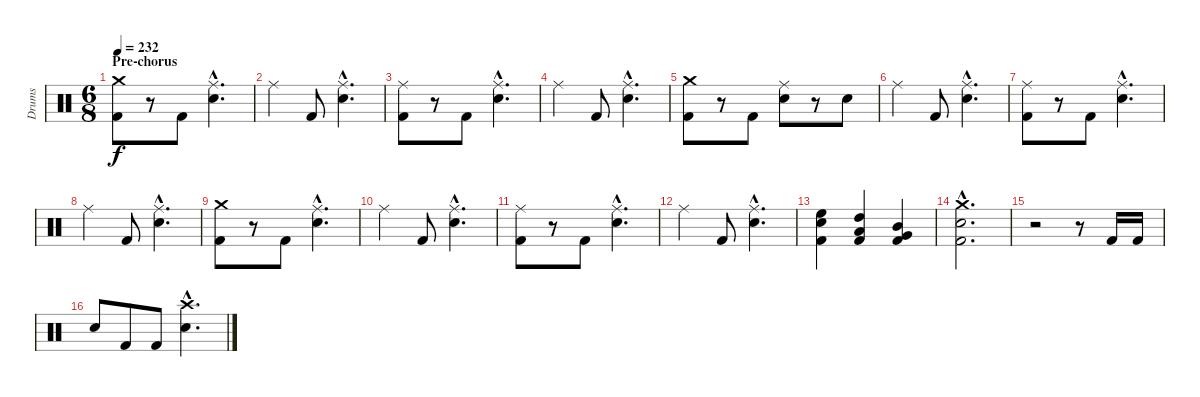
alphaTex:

\track ("Drums" "Drums") {instrument percussion}
\staff {score}
\articulation defaults
\ts (6 8)
\section ("" "Pre-chorus")
\tempo 232
\clef neutral
\ks c
("Crash medium (hit)" "Kick (hit) 2").8{dy f} r.8 "Kick (hit) 2".8 ("Ride (middle)"{hac} "Snare (hit) 2"{hac}).4{d} |
"Ride (middle)".4 "Kick (hit) 2".8 ("Ride (middle)"{hac} "Snare (hit) 2"{hac}).4{d} |
("Ride (middle)" "Kick (hit) 2").8 r.8 "Kick (hit) 2".8 ("Ride (middle)"{hac} "Snare (hit) 2"{hac}).4{d} |
"Ride (middle)".4 "Kick (hit) 2".8 ("Ride (middle)"{hac} "Snare (hit) 2"{hac}).4{d} |
("Crash medium (hit)" "Kick (hit) 2").8 r.8 "Kick (hit) 2".8 ("Ride (middle)" "Snare (hit) 2").8 r.8 "Snare (hit) 2".8 |
"Ride (middle)".4 "Kick (hit) 2".8 ("Ride (middle)"{hac} "Snare (hit) 2"{hac}).4{d} |
("Ride (middle)" "Kick (hit) 2").8 r.8 "Kick (hit) 2".8 ("Ride (middle)"{hac} "Snare (hit) 2"{hac}).4{d} |
"Ride (middle)".4 "Kick (hit) 2".8 ("Ride (middle)"{hac} "Snare (hit) 2"{hac}).4{d} |
("Crash medium (hit)" "Kick (hit) 2").8 r.8 "Kick (hit) 2".8 ("Ride (middle)"{hac} "Snare (hit) 2"{hac}).4{d} |
"Ride (middle)".4 "Kick (hit) 2".8 ("Ride (middle)"{hac} "Snare (hit) 2"{hac}).4{d} |
("Ride (middle)" "Kick (hit) 2").8 r.8 "Kick (hit) 2".8 ("Ride (middle)"{hac} "Snare (hit) 2"{hac}).4{d} |
"Ride (middle)".4 "Kick (hit) 2".8 ("Ride (middle)"{hac} "Snare (hit) 2"{hac}).4{d} |
("High Floor Tom (hit)" "Snare (hit) 2" "Kick (hit) 2").4 ("High Tom (hit)" "Low Tom (hit)" "Kick (hit) 2").4 ("Mid Tom (hit)" "Very Low Tom (hit)" "Kick (hit) 2").4 |
("Crash medium (hit)"{hac} "Snare (hit) 2"{hac} "Kick (hit) 2"{hac}).2{d} |
r.2 r.8 "Kick (hit) 2".16 "Kick (hit) 2".16 |
"Snare (hit) 2".8 "Kick (hit) 2".8 "Kick (hit) 2".8 ("Crash high (hit)"{hac} "Snare (hit) 2"{hac}).4{d}
